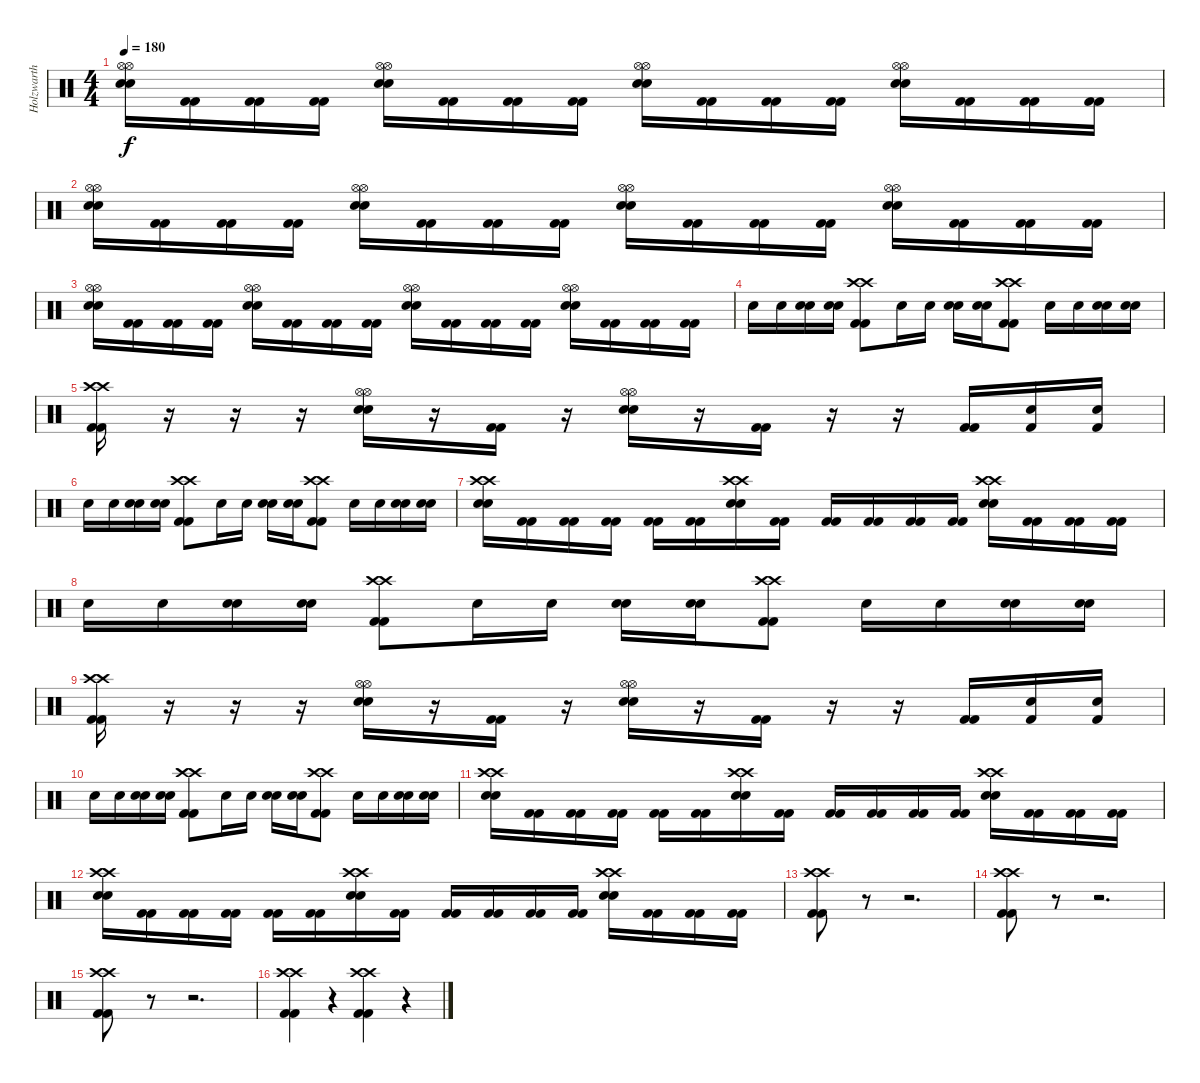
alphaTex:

\track ("Holzwarth" "Holzwarth") {instrument percussion}
\staff {score}
\articulation defaults
\ts (4 4)
\tempo 180
\clef neutral
\ks c
("Snare (hit) 2" "Snare (hit) 2" "Hi-Hat (open)" "Hi-Hat (open)").16{dy f} ("Kick (hit) 2" "Kick (hit) 2").16 ("Kick (hit) 2" "Kick (hit) 2").16 ("Kick (hit) 2" "Kick (hit) 2").16 ("Snare (hit) 2" "Snare (hit) 2" "Hi-Hat (open)" "Hi-Hat (open)").16 ("Kick (hit) 2" "Kick (hit) 2").16 ("Kick (hit) 2" "Kick (hit) 2").16 ("Kick (hit) 2" "Kick (hit) 2").16 ("Snare (hit) 2" "Snare (hit) 2" "Hi-Hat (open)" "Hi-Hat (open)").16 ("Kick (hit) 2" "Kick (hit) 2").16 ("Kick (hit) 2" "Kick (hit) 2").16 ("Kick (hit) 2" "Kick (hit) 2").16 ("Snare (hit) 2" "Snare (hit) 2" "Hi-Hat (open)" "Hi-Hat (open)").16 ("Kick (hit) 2" "Kick (hit) 2").16 ("Kick (hit) 2" "Kick (hit) 2").16 ("Kick (hit) 2" "Kick (hit) 2").16 |
("Snare (hit) 2" "Snare (hit) 2" "Hi-Hat (open)" "Hi-Hat (open)").16 ("Kick (hit) 2" "Kick (hit) 2").16 ("Kick (hit) 2" "Kick (hit) 2").16 ("Kick (hit) 2" "Kick (hit) 2").16 ("Snare (hit) 2" "Snare (hit) 2" "Hi-Hat (open)" "Hi-Hat (open)").16 ("Kick (hit) 2" "Kick (hit) 2").16 ("Kick (hit) 2" "Kick (hit) 2").16 ("Kick (hit) 2" "Kick (hit) 2").16 ("Snare (hit) 2" "Snare (hit) 2" "Hi-Hat (open)" "Hi-Hat (open)").16 ("Kick (hit) 2" "Kick (hit) 2").16 ("Kick (hit) 2" "Kick (hit) 2").16 ("Kick (hit) 2" "Kick (hit) 2").16 ("Snare (hit) 2" "Snare (hit) 2" "Hi-Hat (open)" "Hi-Hat (open)").16 ("Kick (hit) 2" "Kick (hit) 2").16 ("Kick (hit) 2" "Kick (hit) 2").16 ("Kick (hit) 2" "Kick (hit) 2").16 |
("Snare (hit) 2" "Snare (hit) 2" "Hi-Hat (open)" "Hi-Hat (open)").16 ("Kick (hit) 2" "Kick (hit) 2").16 ("Kick (hit) 2" "Kick (hit) 2").16 ("Kick (hit) 2" "Kick (hit) 2").16 ("Snare (hit) 2" "Snare (hit) 2" "Hi-Hat (open)" "Hi-Hat (open)").16 ("Kick (hit) 2" "Kick (hit) 2").16 ("Kick (hit) 2" "Kick (hit) 2").16 ("Kick (hit) 2" "Kick (hit) 2").16 ("Snare (hit) 2" "Snare (hit) 2" "Hi-Hat (open)" "Hi-Hat (open)").16 ("Kick (hit) 2" "Kick (hit) 2").16 ("Kick (hit) 2" "Kick (hit) 2").16 ("Kick (hit) 2" "Kick (hit) 2").16 ("Snare (hit) 2" "Snare (hit) 2" "Hi-Hat (open)" "Hi-Hat (open)").16 ("Kick (hit) 2" "Kick (hit) 2").16 ("Kick (hit) 2" "Kick (hit) 2").16 ("Kick (hit) 2" "Kick (hit) 2").16 |
"Snare (hit) 2".16 "Snare (hit) 2".16 ("Snare (hit) 2" "Snare (hit) 2").16 ("Snare (hit) 2" "Snare (hit) 2").16 ("Kick (hit) 2" "Kick (hit) 2" "Crash high (hit)" "Crash high (hit)").8 "Snare (hit) 2".16 "Snare (hit) 2".16 ("Snare (hit) 2" "Snare (hit) 2").16 ("Snare (hit) 2" "Snare (hit) 2").16 ("Kick (hit) 2" "Kick (hit) 2" "Crash high (hit)" "Crash high (hit)").8 "Snare (hit) 2".16 "Snare (hit) 2".16 ("Snare (hit) 2" "Snare (hit) 2").16 ("Snare (hit) 2" "Snare (hit) 2").16 |
("Kick (hit) 2" "Kick (hit) 2" "Crash high (hit)" "Crash high (hit)").16 r.16 r.16 r.16 ("Snare (hit) 2" "Snare (hit) 2" "Hi-Hat (open)" "Hi-Hat (open)").16 r.16 ("Kick (hit) 2" "Kick (hit) 2").16 r.16 ("Snare (hit) 2" "Snare (hit) 2" "Hi-Hat (open)" "Hi-Hat (open)").16 r.16 ("Kick (hit) 2" "Kick (hit) 2").16 r.16 r.16 ("Kick (hit) 2" "Kick (hit) 2").16 ("Kick (hit) 2" "Snare (hit) 2").16 ("Kick (hit) 2" "Snare (hit) 2").16 |
"Snare (hit) 2".16 "Snare (hit) 2".16 ("Snare (hit) 2" "Snare (hit) 2").16 ("Snare (hit) 2" "Snare (hit) 2").16 ("Kick (hit) 2" "Kick (hit) 2" "Crash high (hit)" "Crash high (hit)").8 "Snare (hit) 2".16 "Snare (hit) 2".16 ("Snare (hit) 2" "Snare (hit) 2").16 ("Snare (hit) 2" "Snare (hit) 2").16 ("Kick (hit) 2" "Kick (hit) 2" "Crash high (hit)" "Crash high (hit)").8 "Snare (hit) 2".16 "Snare (hit) 2".16 ("Snare (hit) 2" "Snare (hit) 2").16 ("Snare (hit) 2" "Snare (hit) 2").16 |
("Snare (hit) 2" "Snare (hit) 2" "Crash high (hit)" "Crash high (hit)").16 ("Kick (hit) 2" "Kick (hit) 2").16 ("Kick (hit) 2" "Kick (hit) 2").16 ("Kick (hit) 2" "Kick (hit) 2").16 ("Kick (hit) 2" "Kick (hit) 2").16 ("Kick (hit) 2" "Kick (hit) 2").16 ("Snare (hit) 2" "Snare (hit) 2" "Crash high (hit)" "Crash high (hit)").16 ("Kick (hit) 2" "Kick (hit) 2").16 ("Kick (hit) 2" "Kick (hit) 2").16 ("Kick (hit) 2" "Kick (hit) 2").16 ("Kick (hit) 2" "Kick (hit) 2").16 ("Kick (hit) 2" "Kick (hit) 2").16 ("Snare (hit) 2" "Snare (hit) 2" "Crash high (hit)" "Crash high (hit)").16 ("Kick (hit) 2" "Kick (hit) 2").16 ("Kick (hit) 2" "Kick (hit) 2").16 ("Kick (hit) 2" "Kick (hit) 2").16 |
"Snare (hit) 2".16 "Snare (hit) 2".16 ("Snare (hit) 2" "Snare (hit) 2").16 ("Snare (hit) 2" "Snare (hit) 2").16 ("Kick (hit) 2" "Kick (hit) 2" "Crash high (hit)" "Crash high (hit)").8 "Snare (hit) 2".16 "Snare (hit) 2".16 ("Snare (hit) 2" "Snare (hit) 2").16 ("Snare (hit) 2" "Snare (hit) 2").16 ("Kick (hit) 2" "Kick (hit) 2" "Crash high (hit)" "Crash high (hit)").8 "Snare (hit) 2".16 "Snare (hit) 2".16 ("Snare (hit) 2" "Snare (hit) 2").16 ("Snare (hit) 2" "Snare (hit) 2").16 |
("Kick (hit) 2" "Kick (hit) 2" "Crash high (hit)" "Crash high (hit)").16 r.16 r.16 r.16 ("Snare (hit) 2" "Snare (hit) 2" "Hi-Hat (open)" "Hi-Hat (open)").16 r.16 ("Kick (hit) 2" "Kick (hit) 2").16 r.16 ("Snare (hit) 2" "Snare (hit) 2" "Hi-Hat (open)" "Hi-Hat (open)").16 r.16 ("Kick (hit) 2" "Kick (hit) 2").16 r.16 r.16 ("Kick (hit) 2" "Kick (hit) 2").16 ("Kick (hit) 2" "Snare (hit) 2").16 ("Kick (hit) 2" "Snare (hit) 2").16 |
"Snare (hit) 2".16 "Snare (hit) 2".16 ("Snare (hit) 2" "Snare (hit) 2").16 ("Snare (hit) 2" "Snare (hit) 2").16 ("Kick (hit) 2" "Kick (hit) 2" "Crash high (hit)" "Crash high (hit)").8 "Snare (hit) 2".16 "Snare (hit) 2".16 ("Snare (hit) 2" "Snare (hit) 2").16 ("Snare (hit) 2" "Snare (hit) 2").16 ("Kick (hit) 2" "Kick (hit) 2" "Crash high (hit)" "Crash high (hit)").8 "Snare (hit) 2".16 "Snare (hit) 2".16 ("Snare (hit) 2" "Snare (hit) 2").16 ("Snare (hit) 2" "Snare (hit) 2").16 |
("Snare (hit) 2" "Snare (hit) 2" "Crash high (hit)" "Crash high (hit)").16 ("Kick (hit) 2" "Kick (hit) 2").16 ("Kick (hit) 2" "Kick (hit) 2").16 ("Kick (hit) 2" "Kick (hit) 2").16 ("Kick (hit) 2" "Kick (hit) 2").16 ("Kick (hit) 2" "Kick (hit) 2").16 ("Snare (hit) 2" "Snare (hit) 2" "Crash high (hit)" "Crash high (hit)").16 ("Kick (hit) 2" "Kick (hit) 2").16 ("Kick (hit) 2" "Kick (hit) 2").16 ("Kick (hit) 2" "Kick (hit) 2").16 ("Kick (hit) 2" "Kick (hit) 2").16 ("Kick (hit) 2" "Kick (hit) 2").16 ("Snare (hit) 2" "Snare (hit) 2" "Crash high (hit)" "Crash high (hit)").16 ("Kick (hit) 2" "Kick (hit) 2").16 ("Kick (hit) 2" "Kick (hit) 2").16 ("Kick (hit) 2" "Kick (hit) 2").16 |
("Snare (hit) 2" "Snare (hit) 2" "Crash high (hit)" "Crash high (hit)").16 ("Kick (hit) 2" "Kick (hit) 2").16 ("Kick (hit) 2" "Kick (hit) 2").16 ("Kick (hit) 2" "Kick (hit) 2").16 ("Kick (hit) 2" "Kick (hit) 2").16 ("Kick (hit) 2" "Kick (hit) 2").16 ("Snare (hit) 2" "Snare (hit) 2" "Crash high (hit)" "Crash high (hit)").16 ("Kick (hit) 2" "Kick (hit) 2").16 ("Kick (hit) 2" "Kick (hit) 2").16 ("Kick (hit) 2" "Kick (hit) 2").16 ("Kick (hit) 2" "Kick (hit) 2").16 ("Kick (hit) 2" "Kick (hit) 2").16 ("Snare (hit) 2" "Snare (hit) 2" "Crash high (hit)" "Crash high (hit)").16 ("Kick (hit) 2" "Kick (hit) 2").16 ("Kick (hit) 2" "Kick (hit) 2").16 ("Kick (hit) 2" "Kick (hit) 2").16 |
("Kick (hit) 2" "Kick (hit) 2" "Crash high (hit)" "Crash high (hit)").8 r.8 r.2{d} |
("Kick (hit) 2" "Kick (hit) 2" "Crash high (hit)" "Crash high (hit)").8 r.8 r.2{d} |
("Kick (hit) 2" "Kick (hit) 2" "Crash high (hit)" "Crash high (hit)").8 r.8 r.2{d} |
("Kick (hit) 2" "Kick (hit) 2" "Crash high (hit)" "Crash high (hit)").4 r.4 ("Kick (hit) 2" "Kick (hit) 2" "Crash high (hit)" "Crash high (hit)").4 r.4
